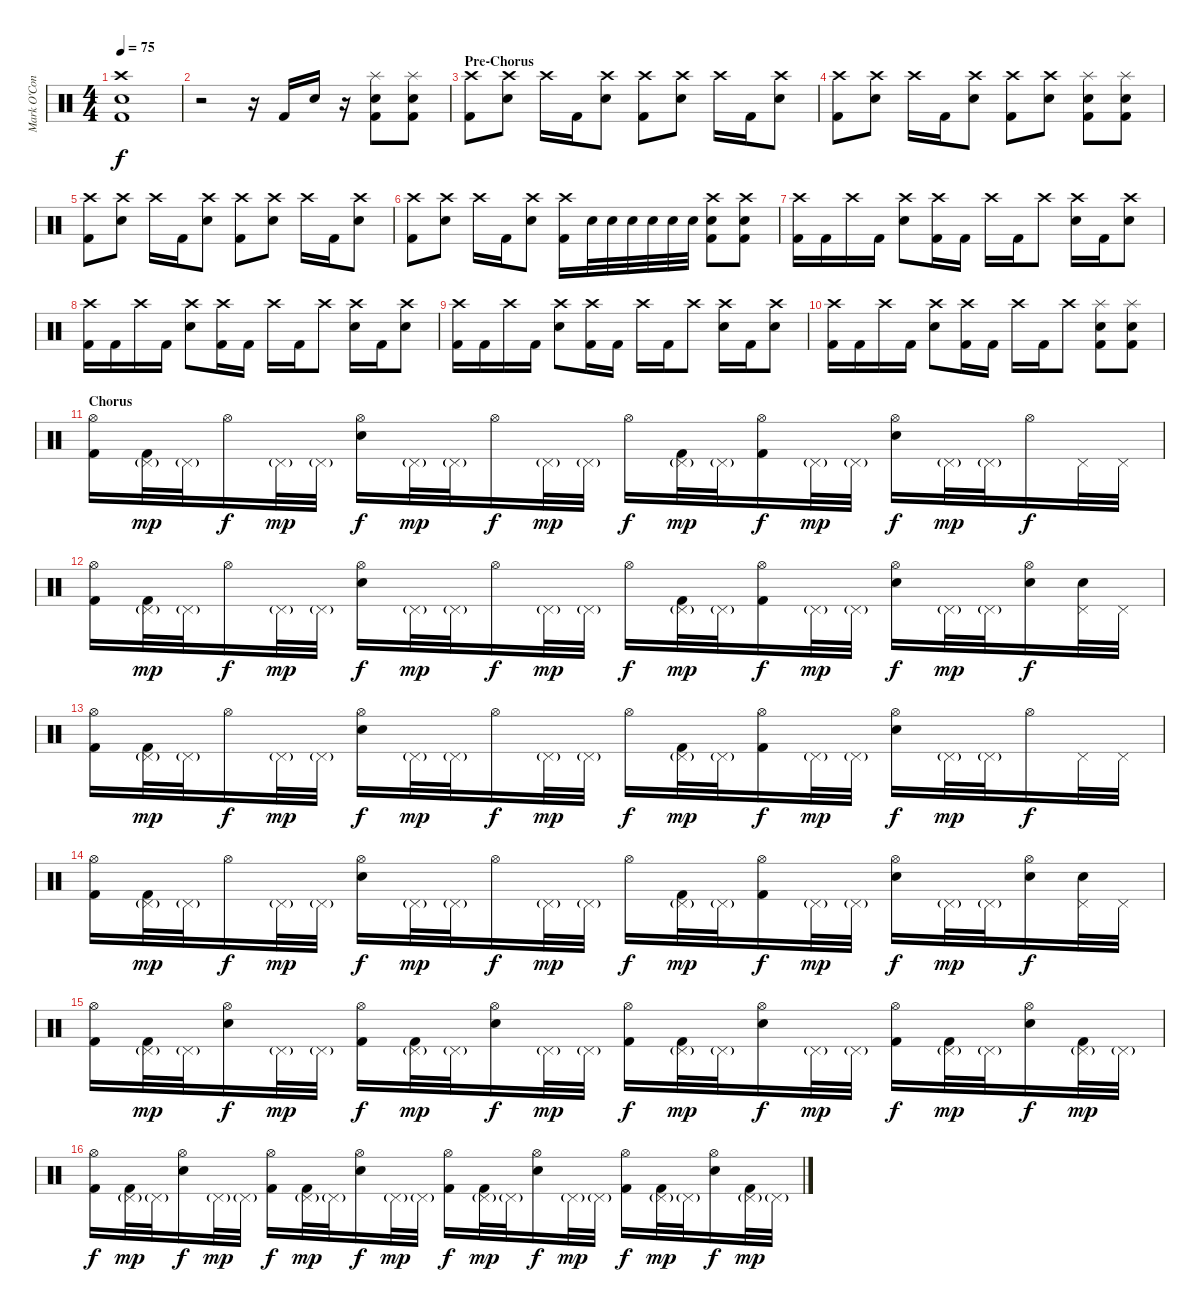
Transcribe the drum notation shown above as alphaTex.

\track ("Mark O'Connell (Drums)" "Mark O'Con") {instrument percussion}
\staff {score}
\articulation defaults
\ts (4 4)
\tempo 75
\clef neutral
\ks c
("Crash high (hit)" "Electric Snare (hit)" "Kick (hit) 2").1{dy f} |
r.2 r.16 "Kick (hit) 2".16 "Electric Snare (hit)".16 r.16 ("Splash (hit)" "Electric Snare (hit)" "Kick (hit) 2").8 ("Splash (hit)" "Electric Snare (hit)" "Kick (hit) 2").8 |
\section ("" "Pre-Chorus")
("Crash high (hit)" "Kick (hit) 2").8 ("Crash high (hit)" "Electric Snare (hit)").8 "Crash high (hit)".16 "Kick (hit) 2".16 ("Crash high (hit)" "Electric Snare (hit)").8 ("Crash high (hit)" "Kick (hit) 2").8 ("Crash high (hit)" "Electric Snare (hit)").8 "Crash high (hit)".16 "Kick (hit) 2".16 ("Crash high (hit)" "Electric Snare (hit)").8 |
("Crash high (hit)" "Kick (hit) 2").8 ("Crash high (hit)" "Electric Snare (hit)").8 "Crash high (hit)".16 "Kick (hit) 2".16 ("Crash high (hit)" "Electric Snare (hit)").8 ("Crash high (hit)" "Kick (hit) 2").8 ("Crash high (hit)" "Electric Snare (hit)").8 ("Splash (hit)" "Electric Snare (hit)" "Kick (hit) 2").8 ("Splash (hit)" "Electric Snare (hit)" "Kick (hit) 2").8 |
("Crash high (hit)" "Kick (hit) 2").8 ("Crash high (hit)" "Electric Snare (hit)").8 "Crash high (hit)".16 "Kick (hit) 2".16 ("Crash high (hit)" "Electric Snare (hit)").8 ("Crash high (hit)" "Kick (hit) 2").8 ("Crash high (hit)" "Electric Snare (hit)").8 "Crash high (hit)".16 "Kick (hit) 2".16 ("Crash high (hit)" "Electric Snare (hit)").8 |
("Crash high (hit)" "Kick (hit) 2").8 ("Crash high (hit)" "Electric Snare (hit)").8 "Crash high (hit)".16 "Kick (hit) 2".16 ("Crash high (hit)" "Electric Snare (hit)").8 ("Crash high (hit)" "Kick (hit) 2").16 "Electric Snare (hit)".32 "Electric Snare (hit)".32 "Electric Snare (hit)".32 "Electric Snare (hit)".32 "Electric Snare (hit)".32 "Electric Snare (hit)".32 ("Crash high (hit)" "Electric Snare (hit)" "Kick (hit) 2").8 ("Crash high (hit)" "Electric Snare (hit)" "Kick (hit) 2").8 |
("Crash high (hit)" "Kick (hit) 2").16 "Kick (hit) 2".16 "Crash high (hit)".16 "Kick (hit) 2".16 ("Crash high (hit)" "Electric Snare (hit)").8 ("Crash high (hit)" "Kick (hit) 2").16 "Kick (hit) 2".16 "Crash high (hit)".16 "Kick (hit) 2".16 "Crash high (hit)".8 ("Crash high (hit)" "Electric Snare (hit)").16 "Kick (hit) 2".16 ("Crash high (hit)" "Electric Snare (hit)").8 |
("Crash high (hit)" "Kick (hit) 2").16 "Kick (hit) 2".16 "Crash high (hit)".16 "Kick (hit) 2".16 ("Crash high (hit)" "Electric Snare (hit)").8 ("Crash high (hit)" "Kick (hit) 2").16 "Kick (hit) 2".16 "Crash high (hit)".16 "Kick (hit) 2".16 "Crash high (hit)".8 ("Crash high (hit)" "Electric Snare (hit)").16 "Kick (hit) 2".16 ("Crash high (hit)" "Electric Snare (hit)").8 |
("Crash high (hit)" "Kick (hit) 2").16 "Kick (hit) 2".16 "Crash high (hit)".16 "Kick (hit) 2".16 ("Crash high (hit)" "Electric Snare (hit)").8 ("Crash high (hit)" "Kick (hit) 2").16 "Kick (hit) 2".16 "Crash high (hit)".16 "Kick (hit) 2".16 "Crash high (hit)".8 ("Crash high (hit)" "Electric Snare (hit)").16 "Kick (hit) 2".16 ("Crash high (hit)" "Electric Snare (hit)").8 |
("Crash high (hit)" "Kick (hit) 2").16 "Kick (hit) 2".16 "Crash high (hit)".16 "Kick (hit) 2".16 ("Crash high (hit)" "Electric Snare (hit)").8 ("Crash high (hit)" "Kick (hit) 2").16 "Kick (hit) 2".16 "Crash high (hit)".16 "Kick (hit) 2".16 "Crash high (hit)".8 ("Splash (hit)" "Electric Snare (hit)" "Kick (hit) 2").8 ("Splash (hit)" "Electric Snare (hit)" "Kick (hit) 2").8 |
\section ("" "Chorus")
("Hi-Hat (open)" "Kick (hit) 2").16 ("Pedal Hi-Hat (hit)"{g} "Kick (hit) 2").32{dy mp} "Pedal Hi-Hat (hit)"{g}.32 "Hi-Hat (open)".16{dy f} "Pedal Hi-Hat (hit)"{g}.32{dy mp} "Pedal Hi-Hat (hit)"{g}.32 ("Hi-Hat (open)" "Electric Snare (hit)").16{dy f} "Pedal Hi-Hat (hit)"{g}.32{dy mp} "Pedal Hi-Hat (hit)"{g}.32 "Hi-Hat (open)".16{dy f} "Pedal Hi-Hat (hit)"{g}.32{dy mp} "Pedal Hi-Hat (hit)"{g}.32 "Hi-Hat (open)".16{dy f} ("Pedal Hi-Hat (hit)"{g} "Kick (hit) 2").32{dy mp} "Pedal Hi-Hat (hit)"{g}.32 ("Hi-Hat (open)" "Kick (hit) 2").16{dy f} "Pedal Hi-Hat (hit)"{g}.32{dy mp} "Pedal Hi-Hat (hit)"{g}.32 ("Hi-Hat (open)" "Electric Snare (hit)").16{dy f} "Pedal Hi-Hat (hit)"{g}.32{dy mp} "Pedal Hi-Hat (hit)"{g}.32 "Hi-Hat (open)".16{dy f} "Pedal Hi-Hat (hit)".32 "Pedal Hi-Hat (hit)".32 |
("Hi-Hat (open)" "Kick (hit) 2").16 ("Pedal Hi-Hat (hit)"{g} "Kick (hit) 2").32{dy mp} "Pedal Hi-Hat (hit)"{g}.32 "Hi-Hat (open)".16{dy f} "Pedal Hi-Hat (hit)"{g}.32{dy mp} "Pedal Hi-Hat (hit)"{g}.32 ("Hi-Hat (open)" "Electric Snare (hit)").16{dy f} "Pedal Hi-Hat (hit)"{g}.32{dy mp} "Pedal Hi-Hat (hit)"{g}.32 "Hi-Hat (open)".16{dy f} "Pedal Hi-Hat (hit)"{g}.32{dy mp} "Pedal Hi-Hat (hit)"{g}.32 "Hi-Hat (open)".16{dy f} ("Pedal Hi-Hat (hit)"{g} "Kick (hit) 2").32{dy mp} "Pedal Hi-Hat (hit)"{g}.32 ("Hi-Hat (open)" "Kick (hit) 2").16{dy f} "Pedal Hi-Hat (hit)"{g}.32{dy mp} "Pedal Hi-Hat (hit)"{g}.32 ("Hi-Hat (open)" "Electric Snare (hit)").16{dy f} "Pedal Hi-Hat (hit)"{g}.32{dy mp} "Pedal Hi-Hat (hit)"{g}.32 ("Hi-Hat (open)" "Electric Snare (hit)").16{dy f} ("Pedal Hi-Hat (hit)" "Electric Snare (hit)").32 "Pedal Hi-Hat (hit)".32 |
("Hi-Hat (open)" "Kick (hit) 2").16 ("Pedal Hi-Hat (hit)"{g} "Kick (hit) 2").32{dy mp} "Pedal Hi-Hat (hit)"{g}.32 "Hi-Hat (open)".16{dy f} "Pedal Hi-Hat (hit)"{g}.32{dy mp} "Pedal Hi-Hat (hit)"{g}.32 ("Hi-Hat (open)" "Electric Snare (hit)").16{dy f} "Pedal Hi-Hat (hit)"{g}.32{dy mp} "Pedal Hi-Hat (hit)"{g}.32 "Hi-Hat (open)".16{dy f} "Pedal Hi-Hat (hit)"{g}.32{dy mp} "Pedal Hi-Hat (hit)"{g}.32 "Hi-Hat (open)".16{dy f} ("Pedal Hi-Hat (hit)"{g} "Kick (hit) 2").32{dy mp} "Pedal Hi-Hat (hit)"{g}.32 ("Hi-Hat (open)" "Kick (hit) 2").16{dy f} "Pedal Hi-Hat (hit)"{g}.32{dy mp} "Pedal Hi-Hat (hit)"{g}.32 ("Hi-Hat (open)" "Electric Snare (hit)").16{dy f} "Pedal Hi-Hat (hit)"{g}.32{dy mp} "Pedal Hi-Hat (hit)"{g}.32 "Hi-Hat (open)".16{dy f} "Pedal Hi-Hat (hit)".32 "Pedal Hi-Hat (hit)".32 |
("Hi-Hat (open)" "Kick (hit) 2").16 ("Pedal Hi-Hat (hit)"{g} "Kick (hit) 2").32{dy mp} "Pedal Hi-Hat (hit)"{g}.32 "Hi-Hat (open)".16{dy f} "Pedal Hi-Hat (hit)"{g}.32{dy mp} "Pedal Hi-Hat (hit)"{g}.32 ("Hi-Hat (open)" "Electric Snare (hit)").16{dy f} "Pedal Hi-Hat (hit)"{g}.32{dy mp} "Pedal Hi-Hat (hit)"{g}.32 "Hi-Hat (open)".16{dy f} "Pedal Hi-Hat (hit)"{g}.32{dy mp} "Pedal Hi-Hat (hit)"{g}.32 "Hi-Hat (open)".16{dy f} ("Pedal Hi-Hat (hit)"{g} "Kick (hit) 2").32{dy mp} "Pedal Hi-Hat (hit)"{g}.32 ("Hi-Hat (open)" "Kick (hit) 2").16{dy f} "Pedal Hi-Hat (hit)"{g}.32{dy mp} "Pedal Hi-Hat (hit)"{g}.32 ("Hi-Hat (open)" "Electric Snare (hit)").16{dy f} "Pedal Hi-Hat (hit)"{g}.32{dy mp} "Pedal Hi-Hat (hit)"{g}.32 ("Hi-Hat (open)" "Electric Snare (hit)").16{dy f} ("Pedal Hi-Hat (hit)" "Electric Snare (hit)").32 "Pedal Hi-Hat (hit)".32 |
("Hi-Hat (open)" "Kick (hit) 2").16 ("Pedal Hi-Hat (hit)"{g} "Kick (hit) 2").32{dy mp} "Pedal Hi-Hat (hit)"{g}.32 ("Hi-Hat (open)" "Electric Snare (hit)").16{dy f} "Pedal Hi-Hat (hit)"{g}.32{dy mp} "Pedal Hi-Hat (hit)"{g}.32 ("Hi-Hat (open)" "Kick (hit) 2").16{dy f} ("Pedal Hi-Hat (hit)"{g} "Kick (hit) 2").32{dy mp} "Pedal Hi-Hat (hit)"{g}.32 ("Hi-Hat (open)" "Electric Snare (hit)").16{dy f} "Pedal Hi-Hat (hit)"{g}.32{dy mp} "Pedal Hi-Hat (hit)"{g}.32 ("Hi-Hat (open)" "Kick (hit) 2").16{dy f} ("Pedal Hi-Hat (hit)"{g} "Kick (hit) 2").32{dy mp} "Pedal Hi-Hat (hit)"{g}.32 ("Hi-Hat (open)" "Electric Snare (hit)").16{dy f} "Pedal Hi-Hat (hit)"{g}.32{dy mp} "Pedal Hi-Hat (hit)"{g}.32 ("Hi-Hat (open)" "Kick (hit) 2").16{dy f} ("Pedal Hi-Hat (hit)"{g} "Kick (hit) 2").32{dy mp} "Pedal Hi-Hat (hit)"{g}.32 ("Hi-Hat (open)" "Electric Snare (hit)").16{dy f} ("Pedal Hi-Hat (hit)"{g} "Kick (hit) 2").32{dy mp} "Pedal Hi-Hat (hit)"{g}.32 |
("Hi-Hat (open)" "Kick (hit) 2").16{dy f} ("Pedal Hi-Hat (hit)"{g} "Kick (hit) 2").32{dy mp} "Pedal Hi-Hat (hit)"{g}.32 ("Hi-Hat (open)" "Electric Snare (hit)").16{dy f} "Pedal Hi-Hat (hit)"{g}.32{dy mp} "Pedal Hi-Hat (hit)"{g}.32 ("Hi-Hat (open)" "Kick (hit) 2").16{dy f} ("Pedal Hi-Hat (hit)"{g} "Kick (hit) 2").32{dy mp} "Pedal Hi-Hat (hit)"{g}.32 ("Hi-Hat (open)" "Electric Snare (hit)").16{dy f} "Pedal Hi-Hat (hit)"{g}.32{dy mp} "Pedal Hi-Hat (hit)"{g}.32 ("Hi-Hat (open)" "Kick (hit) 2").16{dy f} ("Pedal Hi-Hat (hit)"{g} "Kick (hit) 2").32{dy mp} "Pedal Hi-Hat (hit)"{g}.32 ("Hi-Hat (open)" "Electric Snare (hit)").16{dy f} "Pedal Hi-Hat (hit)"{g}.32{dy mp} "Pedal Hi-Hat (hit)"{g}.32 ("Hi-Hat (open)" "Kick (hit) 2").16{dy f} ("Pedal Hi-Hat (hit)"{g} "Kick (hit) 2").32{dy mp} "Pedal Hi-Hat (hit)"{g}.32 ("Hi-Hat (open)" "Electric Snare (hit)").16{dy f} ("Pedal Hi-Hat (hit)"{g} "Kick (hit) 2").32{dy mp} "Pedal Hi-Hat (hit)"{g}.32
